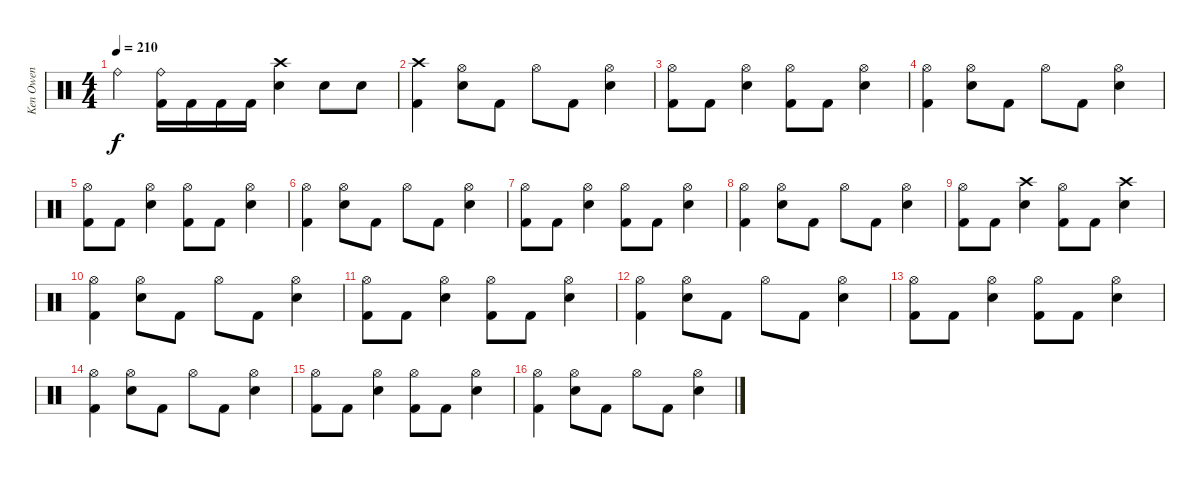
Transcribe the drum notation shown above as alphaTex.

\track ("Ken Owen" "Ken Owen") {instrument percussion}
\staff {score}
\articulation defaults
\ts (4 4)
\tempo 210
\clef neutral
\ks c "Ride (bell)".4{dy f}
("Ride (bell)" "Kick (hit) 2").16 "Kick (hit) 2".16 "Kick (hit) 2".16 "Kick (hit) 2".16 ("Crash high (hit)" "Snare (hit) 2").4 "Snare (hit) 2".8 "Snare (hit) 2".8 |
("Crash high (hit)" "Kick (hit) 2").4 ("Hi-Hat (open)" "Snare (hit) 2").8 "Kick (hit) 2".8 "Hi-Hat (open)".8 "Kick (hit) 2".8 ("Hi-Hat (open)" "Snare (hit) 2").4 |
("Hi-Hat (open)" "Kick (hit) 2").8 "Kick (hit) 2".8 ("Hi-Hat (open)" "Snare (hit) 2").4 ("Hi-Hat (open)" "Kick (hit) 2").8 "Kick (hit) 2".8 ("Hi-Hat (open)" "Snare (hit) 2").4 |
("Hi-Hat (open)" "Kick (hit) 2").4 ("Hi-Hat (open)" "Snare (hit) 2").8 "Kick (hit) 2".8 "Hi-Hat (open)".8 "Kick (hit) 2".8 ("Hi-Hat (open)" "Snare (hit) 2").4 |
("Hi-Hat (open)" "Kick (hit) 2").8 "Kick (hit) 2".8 ("Hi-Hat (open)" "Snare (hit) 2").4 ("Hi-Hat (open)" "Kick (hit) 2").8 "Kick (hit) 2".8 ("Hi-Hat (open)" "Snare (hit) 2").4 |
("Hi-Hat (open)" "Kick (hit) 2").4 ("Hi-Hat (open)" "Snare (hit) 2").8 "Kick (hit) 2".8 "Hi-Hat (open)".8 "Kick (hit) 2".8 ("Hi-Hat (open)" "Snare (hit) 2").4 |
("Hi-Hat (open)" "Kick (hit) 2").8 "Kick (hit) 2".8 ("Hi-Hat (open)" "Snare (hit) 2").4 ("Hi-Hat (open)" "Kick (hit) 2").8 "Kick (hit) 2".8 ("Hi-Hat (open)" "Snare (hit) 2").4 |
("Hi-Hat (open)" "Kick (hit) 2").4 ("Hi-Hat (open)" "Snare (hit) 2").8 "Kick (hit) 2".8 "Hi-Hat (open)".8 "Kick (hit) 2".8 ("Hi-Hat (open)" "Snare (hit) 2").4 |
("Hi-Hat (open)" "Kick (hit) 2").8 "Kick (hit) 2".8 ("Crash high (hit)" "Snare (hit) 2").4 ("Hi-Hat (open)" "Kick (hit) 2").8 "Kick (hit) 2".8 ("Crash high (hit)" "Snare (hit) 2").4 |
("Hi-Hat (open)" "Kick (hit) 2").4 ("Hi-Hat (open)" "Snare (hit) 2").8 "Kick (hit) 2".8 "Hi-Hat (open)".8 "Kick (hit) 2".8 ("Hi-Hat (open)" "Snare (hit) 2").4 |
("Hi-Hat (open)" "Kick (hit) 2").8 "Kick (hit) 2".8 ("Hi-Hat (open)" "Snare (hit) 2").4 ("Hi-Hat (open)" "Kick (hit) 2").8 "Kick (hit) 2".8 ("Hi-Hat (open)" "Snare (hit) 2").4 |
("Hi-Hat (open)" "Kick (hit) 2").4 ("Hi-Hat (open)" "Snare (hit) 2").8 "Kick (hit) 2".8 "Hi-Hat (open)".8 "Kick (hit) 2".8 ("Hi-Hat (open)" "Snare (hit) 2").4 |
("Hi-Hat (open)" "Kick (hit) 2").8 "Kick (hit) 2".8 ("Hi-Hat (open)" "Snare (hit) 2").4 ("Hi-Hat (open)" "Kick (hit) 2").8 "Kick (hit) 2".8 ("Hi-Hat (open)" "Snare (hit) 2").4 |
("Hi-Hat (open)" "Kick (hit) 2").4 ("Hi-Hat (open)" "Snare (hit) 2").8 "Kick (hit) 2".8 "Hi-Hat (open)".8 "Kick (hit) 2".8 ("Hi-Hat (open)" "Snare (hit) 2").4 |
("Hi-Hat (open)" "Kick (hit) 2").8 "Kick (hit) 2".8 ("Hi-Hat (open)" "Snare (hit) 2").4 ("Hi-Hat (open)" "Kick (hit) 2").8 "Kick (hit) 2".8 ("Hi-Hat (open)" "Snare (hit) 2").4 |
("Hi-Hat (open)" "Kick (hit) 2").4 ("Hi-Hat (open)" "Snare (hit) 2").8 "Kick (hit) 2".8 "Hi-Hat (open)".8 "Kick (hit) 2".8 ("Hi-Hat (open)" "Snare (hit) 2").4
